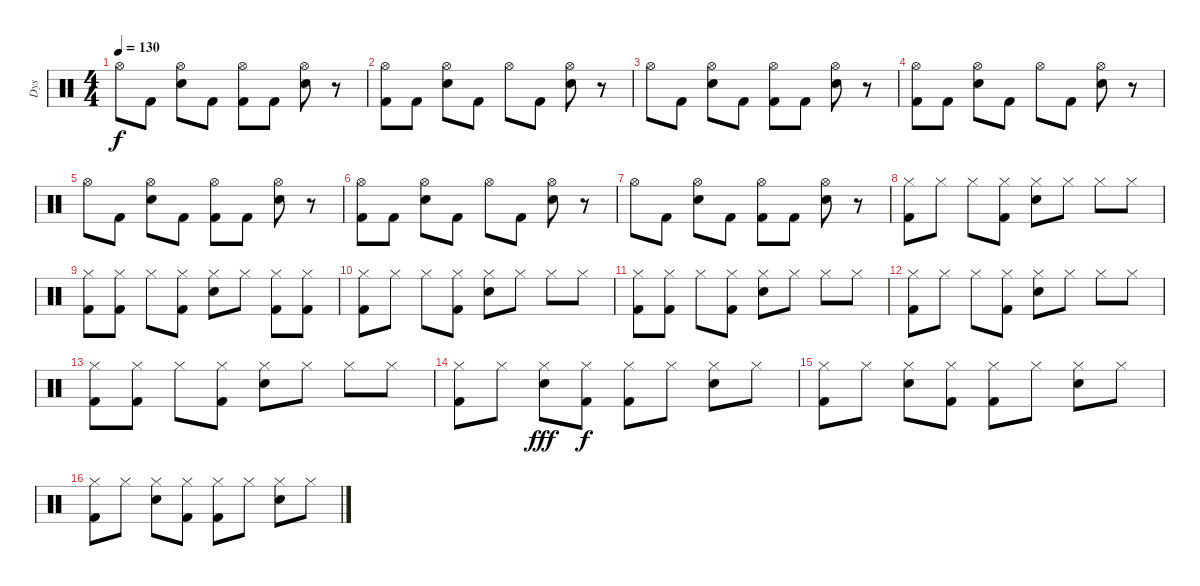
\track ("Dys" "Dys") {instrument percussion}
\staff {score}
\articulation defaults
\ts (4 4)
\tempo 130
\clef neutral
\ks c "Hi-Hat (open)".8{dy f} "Kick (hit) 2".8
("Hi-Hat (open)" "Electric Snare (hit)").8 "Kick (hit) 2".8 ("Hi-Hat (open)" "Kick (hit) 2").8 "Kick (hit) 2".8 ("Hi-Hat (open)" "Electric Snare (hit)").8 r.8 |
("Hi-Hat (open)" "Kick (hit) 2").8 "Kick (hit) 2".8 ("Hi-Hat (open)" "Electric Snare (hit)").8 "Kick (hit) 2".8 "Hi-Hat (open)".8 "Kick (hit) 2".8 ("Hi-Hat (open)" "Electric Snare (hit)").8 r.8 |
"Hi-Hat (open)".8 "Kick (hit) 2".8 ("Hi-Hat (open)" "Electric Snare (hit)").8 "Kick (hit) 2".8 ("Hi-Hat (open)" "Kick (hit) 2").8 "Kick (hit) 2".8 ("Hi-Hat (open)" "Electric Snare (hit)").8 r.8 |
("Hi-Hat (open)" "Kick (hit) 2").8 "Kick (hit) 2".8 ("Hi-Hat (open)" "Electric Snare (hit)").8 "Kick (hit) 2".8 "Hi-Hat (open)".8 "Kick (hit) 2".8 ("Hi-Hat (open)" "Electric Snare (hit)").8 r.8 |
"Hi-Hat (open)".8 "Kick (hit) 2".8 ("Hi-Hat (open)" "Electric Snare (hit)").8 "Kick (hit) 2".8 ("Hi-Hat (open)" "Kick (hit) 2").8 "Kick (hit) 2".8 ("Hi-Hat (open)" "Electric Snare (hit)").8 r.8 |
("Hi-Hat (open)" "Kick (hit) 2").8 "Kick (hit) 2".8 ("Hi-Hat (open)" "Electric Snare (hit)").8 "Kick (hit) 2".8 "Hi-Hat (open)".8 "Kick (hit) 2".8 ("Hi-Hat (open)" "Electric Snare (hit)").8 r.8 |
"Hi-Hat (open)".8 "Kick (hit) 2".8 ("Hi-Hat (open)" "Electric Snare (hit)").8 "Kick (hit) 2".8 ("Hi-Hat (open)" "Kick (hit) 2").8 "Kick (hit) 2".8 ("Hi-Hat (open)" "Electric Snare (hit)").8 r.8 |
("Hi-Hat (closed)" "Kick (hit) 2").8 "Hi-Hat (closed)".8 "Hi-Hat (closed)".8 ("Hi-Hat (closed)" "Kick (hit) 2").8 ("Hi-Hat (closed)" "Electric Snare (hit)").8 "Hi-Hat (closed)".8 "Hi-Hat (closed)".8 "Hi-Hat (closed)".8 |
("Hi-Hat (closed)" "Kick (hit) 2").8 ("Hi-Hat (closed)" "Kick (hit) 2").8 "Hi-Hat (closed)".8 ("Hi-Hat (closed)" "Kick (hit) 2").8 ("Hi-Hat (closed)" "Electric Snare (hit)").8 "Hi-Hat (closed)".8 ("Hi-Hat (closed)" "Kick (hit) 2").8 ("Hi-Hat (closed)" "Kick (hit) 2").8 |
("Hi-Hat (closed)" "Kick (hit) 2").8 "Hi-Hat (closed)".8 "Hi-Hat (closed)".8 ("Hi-Hat (closed)" "Kick (hit) 2").8 ("Hi-Hat (closed)" "Electric Snare (hit)").8 "Hi-Hat (closed)".8 "Hi-Hat (closed)".8 "Hi-Hat (closed)".8 |
("Hi-Hat (closed)" "Kick (hit) 2").8 ("Hi-Hat (closed)" "Kick (hit) 2").8 "Hi-Hat (closed)".8 ("Hi-Hat (closed)" "Kick (hit) 2").8 ("Hi-Hat (closed)" "Electric Snare (hit)").8 "Hi-Hat (closed)".8 "Hi-Hat (closed)".8 "Hi-Hat (closed)".8 |
("Hi-Hat (closed)" "Kick (hit) 2").8 "Hi-Hat (closed)".8 "Hi-Hat (closed)".8 ("Hi-Hat (closed)" "Kick (hit) 2").8 ("Hi-Hat (closed)" "Electric Snare (hit)").8 "Hi-Hat (closed)".8 "Hi-Hat (closed)".8 "Hi-Hat (closed)".8 |
("Hi-Hat (closed)" "Kick (hit) 2").8 ("Hi-Hat (closed)" "Kick (hit) 2").8 "Hi-Hat (closed)".8 ("Hi-Hat (closed)" "Kick (hit) 2").8 ("Hi-Hat (closed)" "Electric Snare (hit)").8 "Hi-Hat (closed)".8 "Hi-Hat (closed)".8 "Hi-Hat (closed)".8 |
("Hi-Hat (closed)" "Kick (hit) 2").8 "Hi-Hat (closed)".8 ("Hi-Hat (closed)" "Electric Snare (hit)").8{dy fff} ("Hi-Hat (closed)" "Kick (hit) 2").8{dy f} ("Hi-Hat (closed)" "Kick (hit) 2").8 "Hi-Hat (closed)".8 ("Hi-Hat (closed)" "Electric Snare (hit)").8 "Hi-Hat (closed)".8 |
("Hi-Hat (closed)" "Kick (hit) 2").8 "Hi-Hat (closed)".8 ("Hi-Hat (closed)" "Electric Snare (hit)").8 ("Hi-Hat (closed)" "Kick (hit) 2").8 ("Hi-Hat (closed)" "Kick (hit) 2").8 "Hi-Hat (closed)".8 ("Hi-Hat (closed)" "Electric Snare (hit)").8 "Hi-Hat (closed)".8 |
("Hi-Hat (closed)" "Kick (hit) 2").8 "Hi-Hat (closed)".8 ("Hi-Hat (closed)" "Electric Snare (hit)").8 ("Hi-Hat (closed)" "Kick (hit) 2").8 ("Hi-Hat (closed)" "Kick (hit) 2").8 "Hi-Hat (closed)".8 ("Hi-Hat (closed)" "Electric Snare (hit)").8 "Hi-Hat (closed)".8
